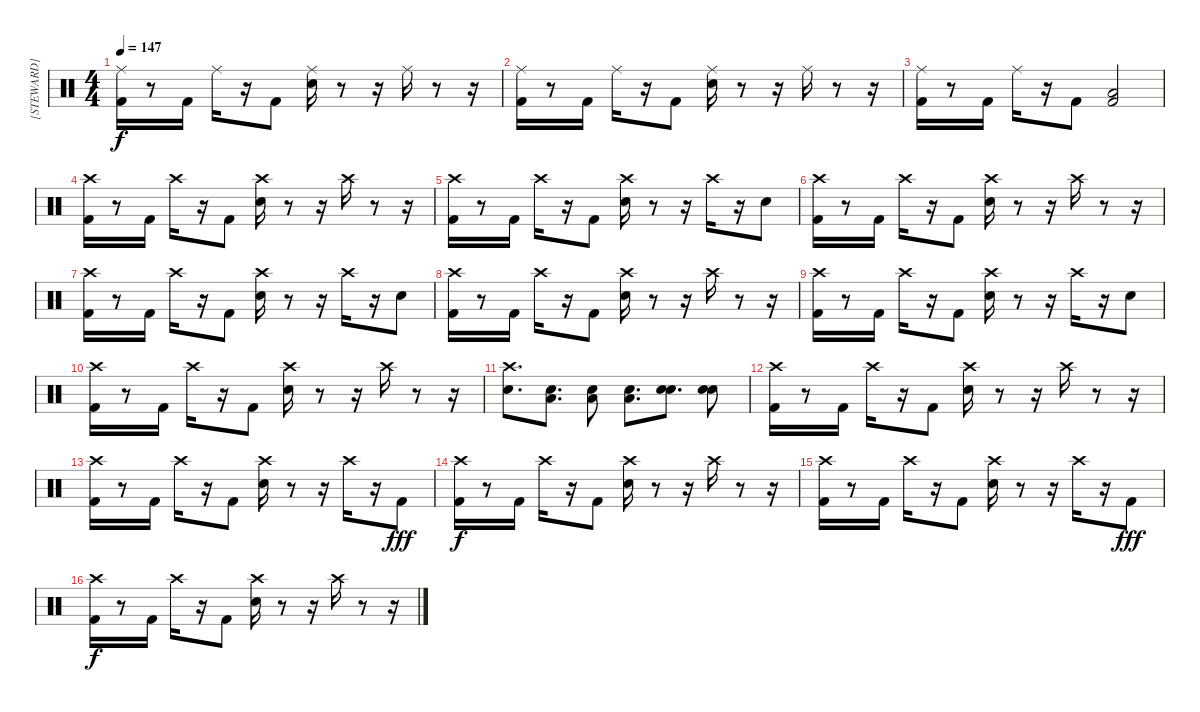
\track ("[STEWARD]" "[STEWARD]") {instrument percussion}
\staff {score}
\articulation defaults
\ts (4 4)
\tempo 147
\clef neutral
\ks c
("Ride (middle)" "Kick (hit) 2").16{dy f} r.8 "Kick (hit) 2".16 "Ride (middle)".16 r.16 "Kick (hit) 2".8 ("Ride (middle)" "Snare (hit) 2").16 r.8 r.16 "Ride (middle)".16 r.8 r.16 |
("Ride (middle)" "Kick (hit) 2").16 r.8 "Kick (hit) 2".16 "Ride (middle)".16 r.16 "Kick (hit) 2".8 ("Ride (middle)" "Snare (hit) 2").16 r.8 r.16 "Ride (middle)".16 r.8 r.16 |
("Ride (middle)" "Kick (hit) 2").16 r.8 "Kick (hit) 2".16 "Ride (middle)".16 r.16 "Kick (hit) 2".8 ("Low Floor Tom (hit)" "Kick (hit) 2").2 |
("Crash high (hit)" "Kick (hit) 2").16 r.8 "Kick (hit) 2".16 "Crash high (hit)".16 r.16 "Kick (hit) 2".8 ("Crash high (hit)" "Snare (hit) 2").16 r.8 r.16 "Crash high (hit)".16 r.8 r.16 |
("Crash high (hit)" "Kick (hit) 2").16 r.8 "Kick (hit) 2".16 "Crash high (hit)".16 r.16 "Kick (hit) 2".8 ("Crash high (hit)" "Snare (hit) 2").16 r.8 r.16 "Crash high (hit)".16 r.16 "Snare (hit) 2".8 |
("Crash high (hit)" "Kick (hit) 2").16 r.8 "Kick (hit) 2".16 "Crash high (hit)".16 r.16 "Kick (hit) 2".8 ("Crash high (hit)" "Snare (hit) 2").16 r.8 r.16 "Crash high (hit)".16 r.8 r.16 |
("Crash high (hit)" "Kick (hit) 2").16 r.8 "Kick (hit) 2".16 "Crash high (hit)".16 r.16 "Kick (hit) 2".8 ("Crash high (hit)" "Snare (hit) 2").16 r.8 r.16 "Crash high (hit)".16 r.16 "Snare (hit) 2".8 |
("Crash high (hit)" "Kick (hit) 2").16 r.8 "Kick (hit) 2".16 "Crash high (hit)".16 r.16 "Kick (hit) 2".8 ("Crash high (hit)" "Snare (hit) 2").16 r.8 r.16 "Crash high (hit)".16 r.8 r.16 |
("Crash high (hit)" "Kick (hit) 2").16 r.8 "Kick (hit) 2".16 "Crash high (hit)".16 r.16 "Kick (hit) 2".8 ("Crash high (hit)" "Snare (hit) 2").16 r.8 r.16 "Crash high (hit)".16 r.16 "Snare (hit) 2".8 |
("Crash high (hit)" "Kick (hit) 2").16 r.8 "Kick (hit) 2".16 "Crash high (hit)".16 r.16 "Kick (hit) 2".8 ("Crash high (hit)" "Snare (hit) 2").16 r.8 r.16 "Crash high (hit)".16 r.8 r.16 |
("Crash high (hit)" "Snare (hit) 2").8{d} ("Snare (hit) 2" "Low Floor Tom (hit)").8{d} ("Snare (hit) 2" "Low Floor Tom (hit)").8 ("Snare (hit) 2" "Low Floor Tom (hit)").8{d} ("Snare (hit) 2" "Snare (hit) 2").8{d} ("Snare (hit) 2" "Snare (hit) 2").8 |
("Crash high (hit)" "Kick (hit) 2").16 r.8 "Kick (hit) 2".16 "Crash high (hit)".16 r.16 "Kick (hit) 2".8 ("Crash high (hit)" "Snare (hit) 2").16 r.8 r.16 "Crash high (hit)".16 r.8 r.16 |
("Crash high (hit)" "Kick (hit) 2").16 r.8 "Kick (hit) 2".16 "Crash high (hit)".16 r.16 "Kick (hit) 2".8 ("Crash high (hit)" "Snare (hit) 2").16 r.8 r.16 "Crash high (hit)".16 r.16 "Kick (hit) 2".8{dy fff} |
("Crash high (hit)" "Kick (hit) 2").16{dy f} r.8 "Kick (hit) 2".16 "Crash high (hit)".16 r.16 "Kick (hit) 2".8 ("Crash high (hit)" "Snare (hit) 2").16 r.8 r.16 "Crash high (hit)".16 r.8 r.16 |
("Crash high (hit)" "Kick (hit) 2").16 r.8 "Kick (hit) 2".16 "Crash high (hit)".16 r.16 "Kick (hit) 2".8 ("Crash high (hit)" "Snare (hit) 2").16 r.8 r.16 "Crash high (hit)".16 r.16 "Kick (hit) 2".8{dy fff} |
("Crash high (hit)" "Kick (hit) 2").16{dy f} r.8 "Kick (hit) 2".16 "Crash high (hit)".16 r.16 "Kick (hit) 2".8 ("Crash high (hit)" "Snare (hit) 2").16 r.8 r.16 "Crash high (hit)".16 r.8 r.16
